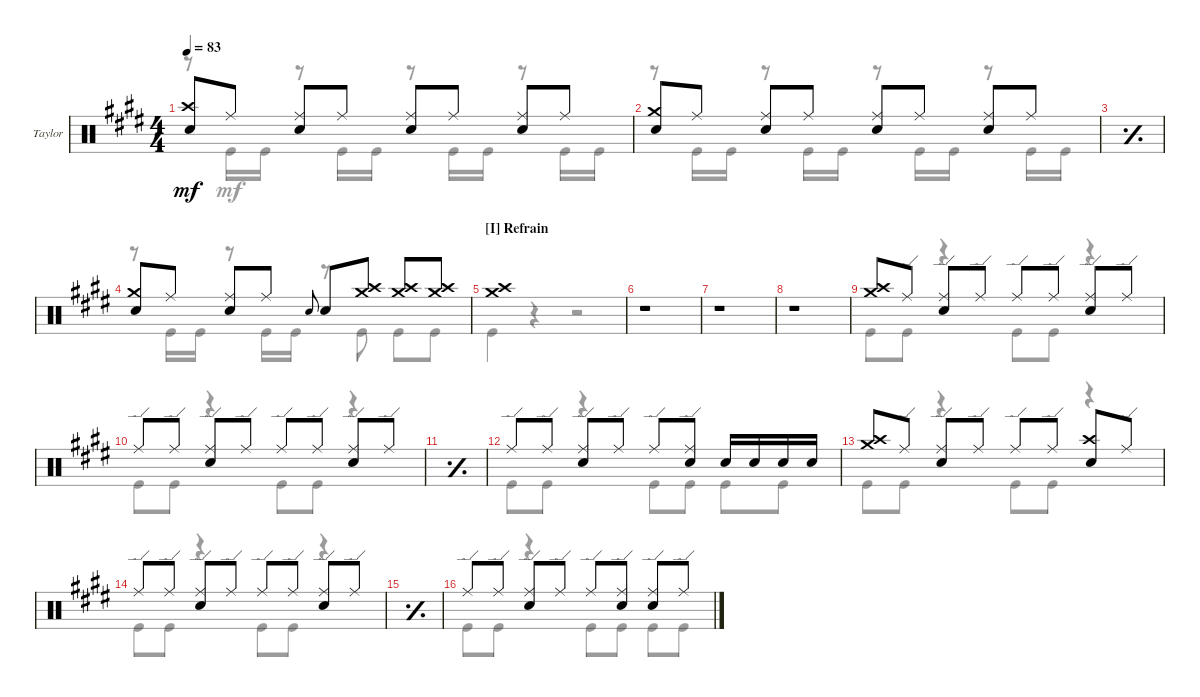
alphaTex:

\defaultSystemsLayout 4
\bracketExtendMode groupsimilarinstruments
\firstSystemTrackNameOrientation horizontal
\otherSystemsTrackNameOrientation horizontal
\track ("Drums - Taylor Hawkins" "Taylor") {instrument percussion}
\staff {score}
\articulation defaults
\voice
\ts (4 4)
\tempo 83
\clef neutral
\ks e
("Snare (hit) 2" "Crash high (hit)").8{dy mf} "Ride (middle)".8 ("Ride (middle)" "Snare (hit) 2").8 "Ride (middle)".8 ("Ride (middle)" "Snare (hit) 2").8 "Ride (middle)".8 ("Ride (middle)" "Snare (hit) 2").8 "Ride (middle)".8 |
("Snare (hit) 2" "Crash medium (hit)").8 "Ride (middle)".8 ("Ride (middle)" "Snare (hit) 2").8 "Ride (middle)".8 ("Ride (middle)" "Snare (hit) 2").8 "Ride (middle)".8 ("Ride (middle)" "Snare (hit) 2").8 "Ride (middle)".8 |
\simile simple
|
\simile none
("Snare (hit) 2" "Crash medium (hit)").8 "Ride (middle)".8 ("Ride (middle)" "Snare (hit) 2").8 "Ride (middle)".8 "Snare (hit) 2".8{gr onbeat} "Snare (hit) 2".8 ("Crash high (hit)" "Crash medium (hit)").8 ("Crash high (hit)" "Crash medium (hit)").8 ("Crash high (hit)" "Crash medium (hit)").8 |
\section ("I" "Refrain")
("Crash high (hit)" "Crash medium (hit)").1 |
r.1 |
r.1 |
r.1 |
("Crash medium (hit)" "Crash high (hit)").8 "Ride (edge)".8 ("Ride (edge)" "Snare (hit) 2").8 "Ride (edge)".8 "Ride (edge)".8 "Ride (edge)".8 ("Ride (edge)" "Snare (hit) 2").8 "Ride (edge)".8 |
"Ride (edge)".8 "Ride (edge)".8 ("Ride (edge)" "Snare (hit) 2").8 "Ride (edge)".8 "Ride (edge)".8 "Ride (edge)".8 ("Snare (hit) 2" "Ride (edge)").8 "Ride (edge)".8 |
\simile simple
|
\simile none "Ride (edge)".8 "Ride (edge)".8
("Ride (edge)" "Snare (hit) 2").8 "Ride (edge)".8 "Ride (edge)".8 ("Ride (edge)" "Snare (hit) 2").8 "Snare (hit) 2".16 "Snare (hit) 2".16 "Snare (hit) 2".16 "Snare (hit) 2".16 |
("Crash medium (hit)" "Crash high (hit)").8 "Ride (edge)".8 ("Ride (edge)" "Snare (hit) 2").8 "Ride (edge)".8 "Ride (edge)".8 "Ride (edge)".8 ("Snare (hit) 2" "Crash high (hit)").8 "Ride (edge)".8 |
"Ride (edge)".8 "Ride (edge)".8 ("Ride (edge)" "Snare (hit) 2").8 "Ride (edge)".8 "Ride (edge)".8 "Ride (edge)".8 ("Snare (hit) 2" "Ride (edge)").8 "Ride (edge)".8 |
\simile simple
|
\simile none "Ride (edge)".8 "Ride (edge)".8
("Ride (edge)" "Snare (hit) 2").8 "Ride (edge)".8 "Ride (edge)".8 ("Ride (edge)" "Snare (hit) 2").8 ("Ride (edge)" "Snare (hit) 2").8 "Ride (edge)".8
\voice
\clef neutral
\ottava regular
\simile none
\ks e
r.8{dy mf} "Kick (hit)".16 "Kick (hit)".16 r.8 "Kick (hit)".16 "Kick (hit)".16 r.8 "Kick (hit)".16 "Kick (hit)".16 r.8 "Kick (hit)".16 "Kick (hit)".16 |
r.8 "Kick (hit)".16 "Kick (hit)".16 r.8 "Kick (hit)".16 "Kick (hit)".16 r.8 "Kick (hit)".16 "Kick (hit)".16 r.8 "Kick (hit)".16 "Kick (hit)".16 |
\simile simple
|
\simile none
r.8 "Kick (hit)".16 "Kick (hit)".16 r.8 "Kick (hit)".16 "Kick (hit)".16 r.8 "Kick (hit)".8 "Kick (hit)".8 "Kick (hit)".8 |
"Kick (hit)".4 r.4 r.2 |
|
|
|
"Kick (hit)".8 "Kick (hit)".8 r.4 "Kick (hit)".8 "Kick (hit)".8 r.4 |
"Kick (hit)".8 "Kick (hit)".8 r.4 "Kick (hit)".8 "Kick (hit)".8 r.4 |
\simile simple
|
\simile none "Kick (hit)".8 "Kick (hit)".8
r.4 "Kick (hit)".8 "Kick (hit)".8 "Kick (hit)".8 "Kick (hit)".8 |
"Kick (hit)".8 "Kick (hit)".8 r.4 "Kick (hit)".8 "Kick (hit)".8 r.4 |
"Kick (hit)".8 "Kick (hit)".8 r.4 "Kick (hit)".8 "Kick (hit)".8 r.4 |
\simile simple
|
\simile none "Kick (hit)".8 "Kick (hit)".8
r.4 "Kick (hit)".8 "Kick (hit)".8 "Kick (hit)".8 "Kick (hit)".8
